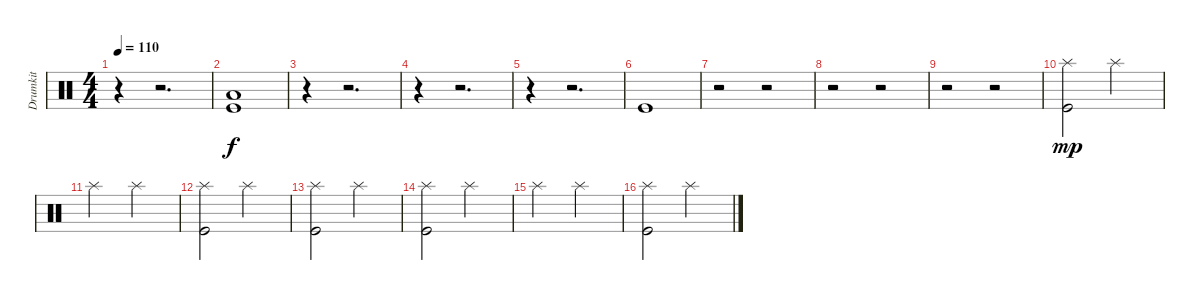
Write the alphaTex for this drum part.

\track ("Drumkit" "Drumkit") {instrument percussion}
\staff {score}
\articulation defaults
\ts (4 4)
\tempo 110
\clef neutral
\ks c
r.4{dy f} r.2{d} |
("Low Floor Tom (hit)" "Kick (hit)").1 |
r.4 r.2{d} |
r.4 r.2{d} |
r.4 r.2{d} |
"Kick (hit)".1 |
r.2 r.2 |
r.2 r.2 |
r.2 r.2 |
("Splash (hit)" "Kick (hit)").2{dy mp} "Splash (hit)".2 |
"Splash (hit)".2 "Splash (hit)".2 |
("Splash (hit)" "Kick (hit)").2 "Splash (hit)".2 |
("Splash (hit)" "Kick (hit)").2 "Splash (hit)".2 |
("Splash (hit)" "Kick (hit)").2 "Splash (hit)".2 |
"Splash (hit)".2 "Splash (hit)".2 |
("Splash (hit)" "Kick (hit)").2 "Splash (hit)".2
